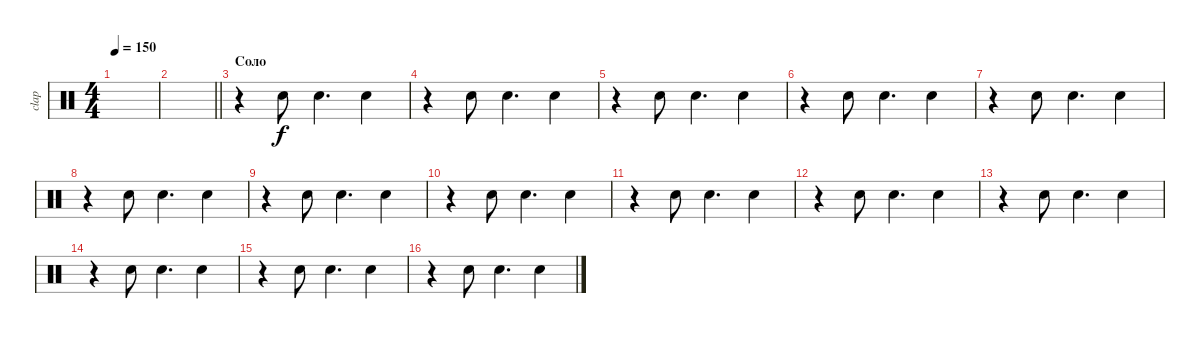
\track ("clap" "clap") {instrument percussion bank 3}
\staff {score}
\articulation defaults
\ts (4 4)
\tempo 150
\clef neutral
\ks c
|
\barLineRight lightlight
|
\section ("" "Соло")
r.4 "Hand Clap (hit)".8 "Hand Clap (hit)".4{d} "Hand Clap (hit)".4 |
r.4 "Hand Clap (hit)".8 "Hand Clap (hit)".4{d} "Hand Clap (hit)".4 |
r.4 "Hand Clap (hit)".8 "Hand Clap (hit)".4{d} "Hand Clap (hit)".4 |
r.4 "Hand Clap (hit)".8 "Hand Clap (hit)".4{d} "Hand Clap (hit)".4 |
r.4 "Hand Clap (hit)".8 "Hand Clap (hit)".4{d} "Hand Clap (hit)".4 |
r.4 "Hand Clap (hit)".8 "Hand Clap (hit)".4{d} "Hand Clap (hit)".4 |
r.4 "Hand Clap (hit)".8 "Hand Clap (hit)".4{d} "Hand Clap (hit)".4 |
r.4 "Hand Clap (hit)".8 "Hand Clap (hit)".4{d} "Hand Clap (hit)".4 |
r.4 "Hand Clap (hit)".8 "Hand Clap (hit)".4{d} "Hand Clap (hit)".4 |
r.4 "Hand Clap (hit)".8 "Hand Clap (hit)".4{d} "Hand Clap (hit)".4 |
r.4 "Hand Clap (hit)".8 "Hand Clap (hit)".4{d} "Hand Clap (hit)".4 |
r.4 "Hand Clap (hit)".8 "Hand Clap (hit)".4{d} "Hand Clap (hit)".4 |
r.4 "Hand Clap (hit)".8 "Hand Clap (hit)".4{d} "Hand Clap (hit)".4 |
r.4 "Hand Clap (hit)".8 "Hand Clap (hit)".4{d} "Hand Clap (hit)".4
